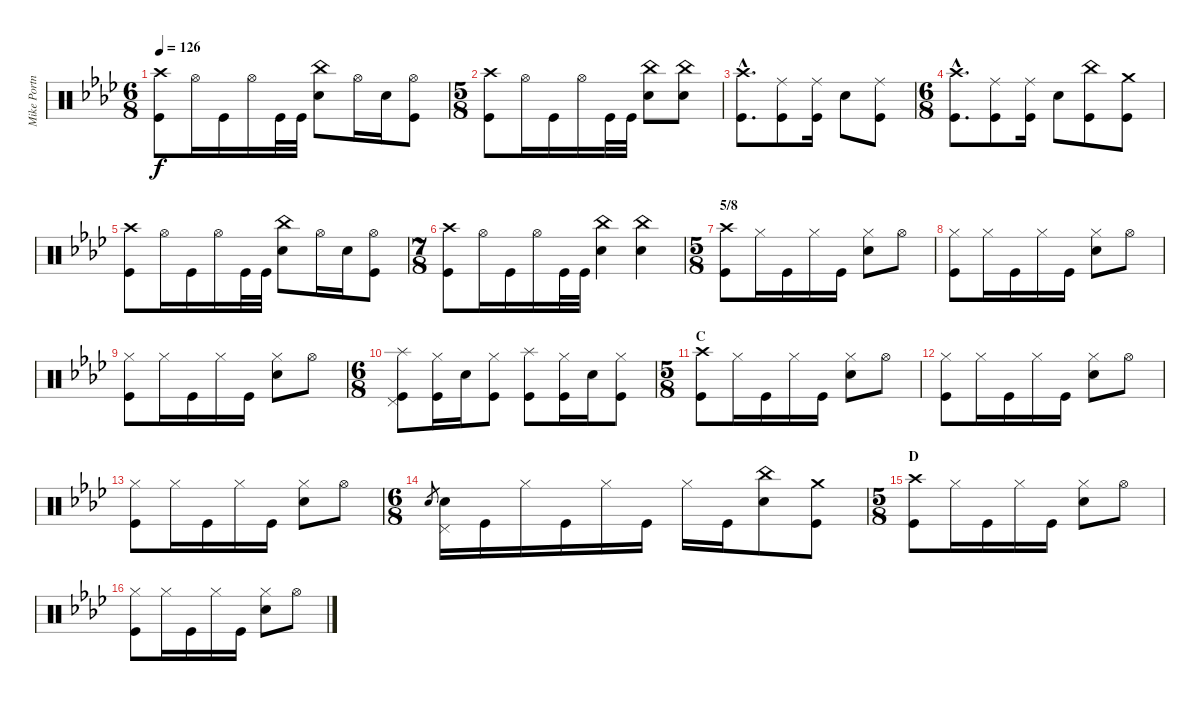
\track ("Mike Portnoy" "Mike Portn") {instrument percussion}
\staff {score}
\articulation defaults
\ts (6 8)
\tempo 126
\clef neutral
\ks ab
("Crash high (hit)" "Kick (hit)").8{dy f} "Hi-Hat (open)".16 "Kick (hit)".16 "Hi-Hat (open)".16 "Kick (hit)".32 "Kick (hit)".32 ("China (hit)" "Electric Snare (hit)").8 "Hi-Hat (open)".16 "Electric Snare (hit)".16 ("Hi-Hat (open)" "Kick (hit)").8 |
\ts (5 8)
("Crash high (hit)" "Kick (hit)").8 "Hi-Hat (open)".16 "Kick (hit)".16 "Hi-Hat (open)".16 "Kick (hit)".32 "Kick (hit)".32 ("China (hit)" "Electric Snare (hit)").8 ("China (hit)" "Electric Snare (hit)").8 |
("Crash high (hit)"{hac} "Kick (hit)"{hac}).8{d} ("Ride (middle)" "Kick (hit)").8 ("Ride (middle)" "Kick (hit)").16 "Electric Snare (hit)".8 ("Ride (middle)" "Kick (hit)").8 |
\ts (6 8)
("Crash high (hit)"{hac} "Kick (hit)"{hac}).8{d} ("Ride (middle)" "Kick (hit)").8 ("Ride (middle)" "Kick (hit)").16 "Electric Snare (hit)".8 ("China (hit)" "Kick (hit)").8 ("Crash medium (hit)" "Kick (hit)").8 |
("Crash high (hit)" "Kick (hit)").8 "Hi-Hat (open)".16 "Kick (hit)".16 "Hi-Hat (open)".16 "Kick (hit)".32 "Kick (hit)".32 ("China (hit)" "Electric Snare (hit)").8 "Hi-Hat (open)".16 "Electric Snare (hit)".16 ("Hi-Hat (open)" "Kick (hit)").8 |
\ts (7 8)
("Crash high (hit)" "Kick (hit)").8 "Hi-Hat (open)".16 "Kick (hit)".16 "Hi-Hat (open)".16 "Kick (hit)".32 "Kick (hit)".32 ("China (hit)" "Electric Snare (hit)").4 ("China (hit)" "Electric Snare (hit)").4 |
\ts (5 8)
\section ("" "5/8")
("Crash high (hit)" "Kick (hit)").8 "Hi-Hat (closed)".16 "Kick (hit)".16 "Hi-Hat (closed)".16 "Kick (hit)".16 ("Hi-Hat (closed)" "Electric Snare (hit)").8 "Hi-Hat (open)".8 |
("Hi-Hat (closed)" "Kick (hit)").8 "Hi-Hat (closed)".16 "Kick (hit)".16 "Hi-Hat (closed)".16 "Kick (hit)".16 ("Hi-Hat (closed)" "Electric Snare (hit)").8 "Hi-Hat (open)".8 |
("Hi-Hat (closed)" "Kick (hit)").8 "Hi-Hat (closed)".16 "Kick (hit)".16 "Hi-Hat (closed)".16 "Kick (hit)".16 ("Hi-Hat (closed)" "Electric Snare (hit)").8 "Hi-Hat (open)".8 |
\ts (6 8)
("Splash (hit)" "Pedal Hi-Hat (hit)" "Kick (hit)").8 ("Hi-Hat (closed)" "Kick (hit)").16 "Electric Snare (hit)".16 ("Hi-Hat (closed)" "Kick (hit)").8 ("Splash (hit)" "Kick (hit)").8 ("Hi-Hat (closed)" "Kick (hit)").16 "Electric Snare (hit)".16 ("Hi-Hat (closed)" "Kick (hit)").8 |
\ts (5 8)
\section ("" "C")
("Crash high (hit)" "Kick (hit)").8 "Hi-Hat (closed)".16 "Kick (hit)".16 "Hi-Hat (closed)".16 "Kick (hit)".16 ("Hi-Hat (closed)" "Electric Snare (hit)").8 "Hi-Hat (open)".8 |
("Hi-Hat (closed)" "Kick (hit)").8 "Hi-Hat (closed)".16 "Kick (hit)".16 "Hi-Hat (closed)".16 "Kick (hit)".16 ("Hi-Hat (closed)" "Electric Snare (hit)").8 "Hi-Hat (open)".8 |
("Hi-Hat (closed)" "Kick (hit)").8 "Hi-Hat (closed)".16 "Kick (hit)".16 "Hi-Hat (closed)".16 "Kick (hit)".16 ("Hi-Hat (closed)" "Electric Snare (hit)").8 "Hi-Hat (open)".8 |
\ts (6 8)
"Electric Snare (hit)".8{gr} ("Pedal Hi-Hat (hit)" "Electric Snare (hit)").16 "Kick (hit)".16 "Hi-Hat (closed)".16 "Kick (hit)".16 "Hi-Hat (closed)".16 "Kick (hit)".16 "Hi-Hat (closed)".16 "Kick (hit)".16 ("China (hit)" "Electric Snare (hit)").8 ("Crash medium (hit)" "Kick (hit)").8 |
\ts (5 8)
\section ("" "D")
("Crash high (hit)" "Kick (hit)").8 "Hi-Hat (closed)".16 "Kick (hit)".16 "Hi-Hat (closed)".16 "Kick (hit)".16 ("Hi-Hat (closed)" "Electric Snare (hit)").8 "Hi-Hat (open)".8 |
("Hi-Hat (closed)" "Kick (hit)").8 "Hi-Hat (closed)".16 "Kick (hit)".16 "Hi-Hat (closed)".16 "Kick (hit)".16 ("Hi-Hat (closed)" "Electric Snare (hit)").8 "Hi-Hat (open)".8
